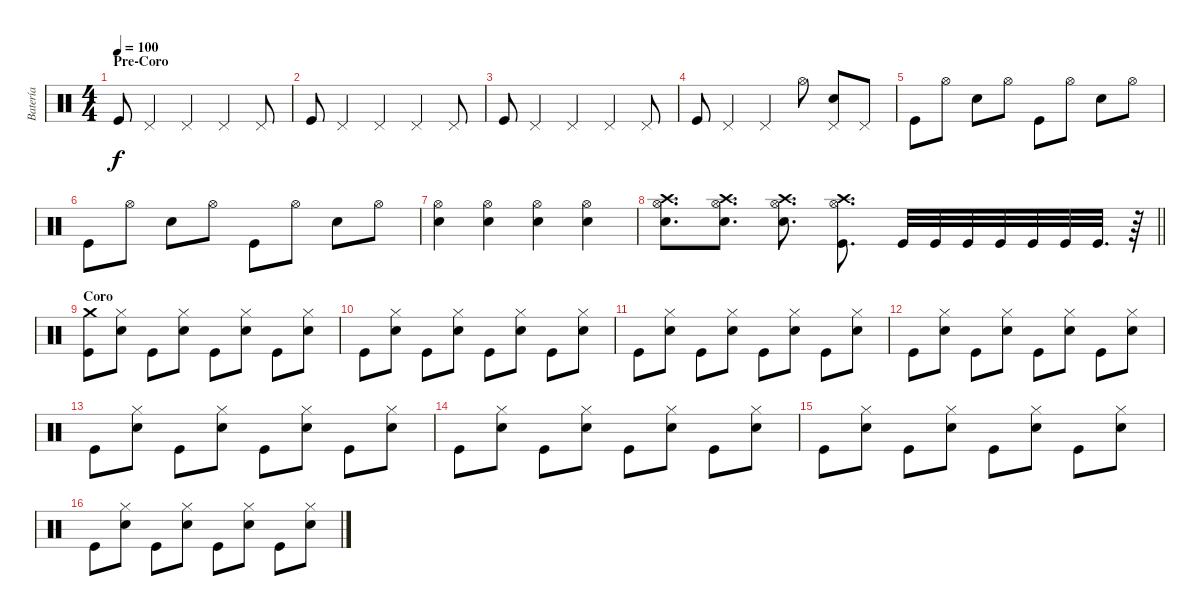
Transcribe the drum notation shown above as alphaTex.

\track ("Batería" "Batería") {instrument percussion}
\staff {score}
\articulation defaults
\ts (4 4)
\section ("" "Pre-Coro")
\tempo 100
\clef neutral
\ks c "Kick (hit)".8{dy f} "Pedal Hi-Hat (hit)".4 "Pedal Hi-Hat (hit)".4 "Pedal Hi-Hat (hit)".4 "Pedal Hi-Hat (hit)".8
|
"Kick (hit)".8 "Pedal Hi-Hat (hit)".4 "Pedal Hi-Hat (hit)".4 "Pedal Hi-Hat (hit)".4 "Pedal Hi-Hat (hit)".8 |
"Kick (hit)".8 "Pedal Hi-Hat (hit)".4 "Pedal Hi-Hat (hit)".4 "Pedal Hi-Hat (hit)".4 "Pedal Hi-Hat (hit)".8 |
"Kick (hit)".8 "Pedal Hi-Hat (hit)".4 "Pedal Hi-Hat (hit)".4 "Hi-Hat (open)".8 ("Electric Snare (hit)" "Pedal Hi-Hat (hit)").8 "Pedal Hi-Hat (hit)".8 |
"Kick (hit)".8 "Hi-Hat (open)".8 "Electric Snare (hit)".8 "Hi-Hat (open)".8 "Kick (hit)".8 "Hi-Hat (open)".8 "Electric Snare (hit)".8 "Hi-Hat (open)".8 |
"Kick (hit)".8 "Hi-Hat (open)".8 "Electric Snare (hit)".8 "Hi-Hat (open)".8 "Kick (hit)".8 "Hi-Hat (open)".8 "Electric Snare (hit)".8 "Hi-Hat (open)".8 |
("Electric Snare (hit)" "Hi-Hat (open)").4 ("Electric Snare (hit)" "Hi-Hat (open)").4 ("Electric Snare (hit)" "Hi-Hat (open)").4 ("Electric Snare (hit)" "Hi-Hat (open)").4 |
\barLineRight lightlight
("Electric Snare (hit)" "Hi-Hat (open)" "Crash high (hit)").8{d} ("Electric Snare (hit)" "Hi-Hat (open)" "Crash high (hit)").8{d} ("Electric Snare (hit)" "Hi-Hat (open)" "Crash high (hit)").8{d} ("Kick (hit)" "Hi-Hat (open)" "Crash high (hit)").8{d} "Kick (hit)".32 "Kick (hit)".32 "Kick (hit)".32 "Kick (hit)".32 "Kick (hit)".32 "Kick (hit)".32 "Kick (hit)".32{d} r.64 |
\section ("" "Coro")
("Kick (hit)" "Crash medium (hit)").8 ("Electric Snare (hit)" "Hi-Hat (closed)").8 "Kick (hit)".8 ("Electric Snare (hit)" "Hi-Hat (closed)").8 "Kick (hit)".8 ("Electric Snare (hit)" "Hi-Hat (closed)").8 "Kick (hit)".8 ("Electric Snare (hit)" "Hi-Hat (closed)").8 |
"Kick (hit)".8 ("Electric Snare (hit)" "Hi-Hat (closed)").8 "Kick (hit)".8 ("Electric Snare (hit)" "Hi-Hat (closed)").8 "Kick (hit)".8 ("Electric Snare (hit)" "Hi-Hat (closed)").8 "Kick (hit)".8 ("Electric Snare (hit)" "Hi-Hat (closed)").8 |
"Kick (hit)".8 ("Electric Snare (hit)" "Hi-Hat (closed)").8 "Kick (hit)".8 ("Electric Snare (hit)" "Hi-Hat (closed)").8 "Kick (hit)".8 ("Electric Snare (hit)" "Hi-Hat (closed)").8 "Kick (hit)".8 ("Electric Snare (hit)" "Hi-Hat (closed)").8 |
"Kick (hit)".8 ("Electric Snare (hit)" "Hi-Hat (closed)").8 "Kick (hit)".8 ("Electric Snare (hit)" "Hi-Hat (closed)").8 "Kick (hit)".8 ("Electric Snare (hit)" "Hi-Hat (closed)").8 "Kick (hit)".8 ("Electric Snare (hit)" "Hi-Hat (closed)").8 |
"Kick (hit)".8 ("Electric Snare (hit)" "Hi-Hat (closed)").8 "Kick (hit)".8 ("Electric Snare (hit)" "Hi-Hat (closed)").8 "Kick (hit)".8 ("Electric Snare (hit)" "Hi-Hat (closed)").8 "Kick (hit)".8 ("Electric Snare (hit)" "Hi-Hat (closed)").8 |
"Kick (hit)".8 ("Electric Snare (hit)" "Hi-Hat (closed)").8 "Kick (hit)".8 ("Electric Snare (hit)" "Hi-Hat (closed)").8 "Kick (hit)".8 ("Electric Snare (hit)" "Hi-Hat (closed)").8 "Kick (hit)".8 ("Electric Snare (hit)" "Hi-Hat (closed)").8 |
"Kick (hit)".8 ("Electric Snare (hit)" "Hi-Hat (closed)").8 "Kick (hit)".8 ("Electric Snare (hit)" "Hi-Hat (closed)").8 "Kick (hit)".8 ("Electric Snare (hit)" "Hi-Hat (closed)").8 "Kick (hit)".8 ("Electric Snare (hit)" "Hi-Hat (closed)").8 |
"Kick (hit)".8 ("Electric Snare (hit)" "Hi-Hat (closed)").8 "Kick (hit)".8 ("Electric Snare (hit)" "Hi-Hat (closed)").8 "Kick (hit)".8 ("Electric Snare (hit)" "Hi-Hat (closed)").8 "Kick (hit)".8 ("Electric Snare (hit)" "Hi-Hat (closed)").8
